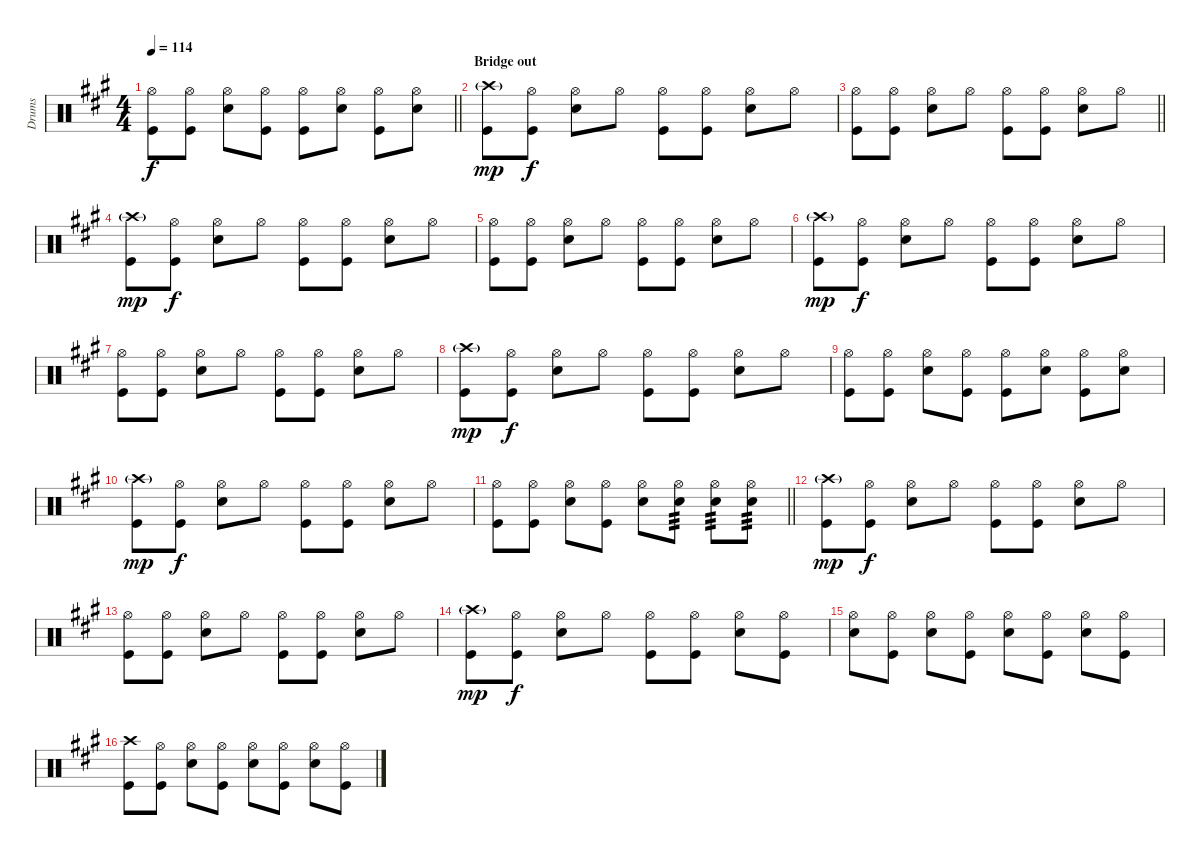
\track ("Drums" "Drums") {instrument percussion}
\staff {score}
\articulation defaults
\ts (4 4)
\tempo 114
\clef neutral
\barLineRight lightlight
\ks f#minor
("Hi-Hat (open)" "Kick (hit)").8{dy f} ("Hi-Hat (open)" "Kick (hit)").8 ("Hi-Hat (open)" "Snare (hit) 2").8 ("Hi-Hat (open)" "Kick (hit)").8 ("Hi-Hat (open)" "Kick (hit)").8 ("Hi-Hat (open)" "Snare (hit) 2").8 ("Hi-Hat (open)" "Kick (hit)").8 ("Hi-Hat (open)" "Snare (hit) 2").8 |
\section ("" "Bridge out")
("Crash high (hit)"{g} "Kick (hit)").8{dy mp} ("Hi-Hat (open)" "Kick (hit)").8{dy f} ("Hi-Hat (open)" "Snare (hit) 2").8 "Hi-Hat (open)".8 ("Hi-Hat (open)" "Kick (hit)").8 ("Hi-Hat (open)" "Kick (hit)").8 ("Hi-Hat (open)" "Snare (hit) 2").8 "Hi-Hat (open)".8 |
\barLineRight lightlight
("Hi-Hat (open)" "Kick (hit)").8 ("Hi-Hat (open)" "Kick (hit)").8 ("Hi-Hat (open)" "Snare (hit) 2").8 "Hi-Hat (open)".8 ("Hi-Hat (open)" "Kick (hit)").8 ("Hi-Hat (open)" "Kick (hit)").8 ("Hi-Hat (open)" "Snare (hit) 2").8 "Hi-Hat (open)".8 |
("Crash high (hit)"{g} "Kick (hit)").8{dy mp} ("Hi-Hat (open)" "Kick (hit)").8{dy f} ("Hi-Hat (open)" "Snare (hit) 2").8 "Hi-Hat (open)".8 ("Hi-Hat (open)" "Kick (hit)").8 ("Hi-Hat (open)" "Kick (hit)").8 ("Hi-Hat (open)" "Snare (hit) 2").8 "Hi-Hat (open)".8 |
("Hi-Hat (open)" "Kick (hit)").8 ("Hi-Hat (open)" "Kick (hit)").8 ("Hi-Hat (open)" "Snare (hit) 2").8 "Hi-Hat (open)".8 ("Hi-Hat (open)" "Kick (hit)").8 ("Hi-Hat (open)" "Kick (hit)").8 ("Hi-Hat (open)" "Snare (hit) 2").8 "Hi-Hat (open)".8 |
("Crash high (hit)"{g} "Kick (hit)").8{dy mp} ("Hi-Hat (open)" "Kick (hit)").8{dy f} ("Hi-Hat (open)" "Snare (hit) 2").8 "Hi-Hat (open)".8 ("Hi-Hat (open)" "Kick (hit)").8 ("Hi-Hat (open)" "Kick (hit)").8 ("Hi-Hat (open)" "Snare (hit) 2").8 "Hi-Hat (open)".8 |
("Hi-Hat (open)" "Kick (hit)").8 ("Hi-Hat (open)" "Kick (hit)").8 ("Hi-Hat (open)" "Snare (hit) 2").8 "Hi-Hat (open)".8 ("Hi-Hat (open)" "Kick (hit)").8 ("Hi-Hat (open)" "Kick (hit)").8 ("Hi-Hat (open)" "Snare (hit) 2").8 "Hi-Hat (open)".8 |
("Crash high (hit)"{g} "Kick (hit)").8{dy mp} ("Hi-Hat (open)" "Kick (hit)").8{dy f} ("Hi-Hat (open)" "Snare (hit) 2").8 "Hi-Hat (open)".8 ("Hi-Hat (open)" "Kick (hit)").8 ("Hi-Hat (open)" "Kick (hit)").8 ("Hi-Hat (open)" "Snare (hit) 2").8 "Hi-Hat (open)".8 |
("Hi-Hat (open)" "Kick (hit)").8 ("Hi-Hat (open)" "Kick (hit)").8 ("Hi-Hat (open)" "Snare (hit) 2").8 ("Hi-Hat (open)" "Kick (hit)").8 ("Hi-Hat (open)" "Kick (hit)").8 ("Hi-Hat (open)" "Snare (hit) 2").8 ("Hi-Hat (open)" "Kick (hit)").8 ("Hi-Hat (open)" "Snare (hit) 2").8 |
("Crash high (hit)"{g} "Kick (hit)").8{dy mp} ("Hi-Hat (open)" "Kick (hit)").8{dy f} ("Hi-Hat (open)" "Snare (hit) 2").8 "Hi-Hat (open)".8 ("Hi-Hat (open)" "Kick (hit)").8 ("Hi-Hat (open)" "Kick (hit)").8 ("Hi-Hat (open)" "Snare (hit) 2").8 "Hi-Hat (open)".8 |
\barLineRight lightlight
("Hi-Hat (open)" "Kick (hit)").8 ("Hi-Hat (open)" "Kick (hit)").8 ("Hi-Hat (open)" "Snare (hit) 2").8 ("Hi-Hat (open)" "Kick (hit)").8 ("Hi-Hat (open)" "Snare (hit) 2").8 ("Hi-Hat (open)" "Snare (hit) 2").8{tp 3} ("Hi-Hat (open)" "Snare (hit) 2").8{tp 3} ("Hi-Hat (open)" "Snare (hit) 2").8{tp 3} |
("Crash high (hit)"{g} "Kick (hit)").8{dy mp} ("Hi-Hat (open)" "Kick (hit)").8{dy f} ("Hi-Hat (open)" "Snare (hit) 2").8 "Hi-Hat (open)".8 ("Hi-Hat (open)" "Kick (hit)").8 ("Hi-Hat (open)" "Kick (hit)").8 ("Hi-Hat (open)" "Snare (hit) 2").8 "Hi-Hat (open)".8 |
("Hi-Hat (open)" "Kick (hit)").8 ("Hi-Hat (open)" "Kick (hit)").8 ("Hi-Hat (open)" "Snare (hit) 2").8 "Hi-Hat (open)".8 ("Hi-Hat (open)" "Kick (hit)").8 ("Hi-Hat (open)" "Kick (hit)").8 ("Hi-Hat (open)" "Snare (hit) 2").8 "Hi-Hat (open)".8 |
("Crash high (hit)"{g} "Kick (hit)").8{dy mp} ("Hi-Hat (open)" "Kick (hit)").8{dy f} ("Hi-Hat (open)" "Snare (hit) 2").8 "Hi-Hat (open)".8 ("Hi-Hat (open)" "Kick (hit)").8 ("Hi-Hat (open)" "Kick (hit)").8 ("Hi-Hat (open)" "Snare (hit) 2").8 ("Hi-Hat (open)" "Kick (hit)").8 |
("Hi-Hat (open)" "Snare (hit) 2").8 ("Hi-Hat (open)" "Kick (hit)").8 ("Hi-Hat (open)" "Snare (hit) 2").8 ("Hi-Hat (open)" "Kick (hit)").8 ("Hi-Hat (open)" "Snare (hit) 2").8 ("Hi-Hat (open)" "Kick (hit)").8 ("Hi-Hat (open)" "Snare (hit) 2").8 ("Hi-Hat (open)" "Kick (hit)").8 |
("Crash high (hit)" "Kick (hit)").8 ("Hi-Hat (open)" "Kick (hit)").8 ("Hi-Hat (open)" "Snare (hit) 2").8 ("Hi-Hat (open)" "Kick (hit)").8 ("Hi-Hat (open)" "Snare (hit) 2").8 ("Hi-Hat (open)" "Kick (hit)").8 ("Hi-Hat (open)" "Snare (hit) 2").8 ("Hi-Hat (open)" "Kick (hit)").8
